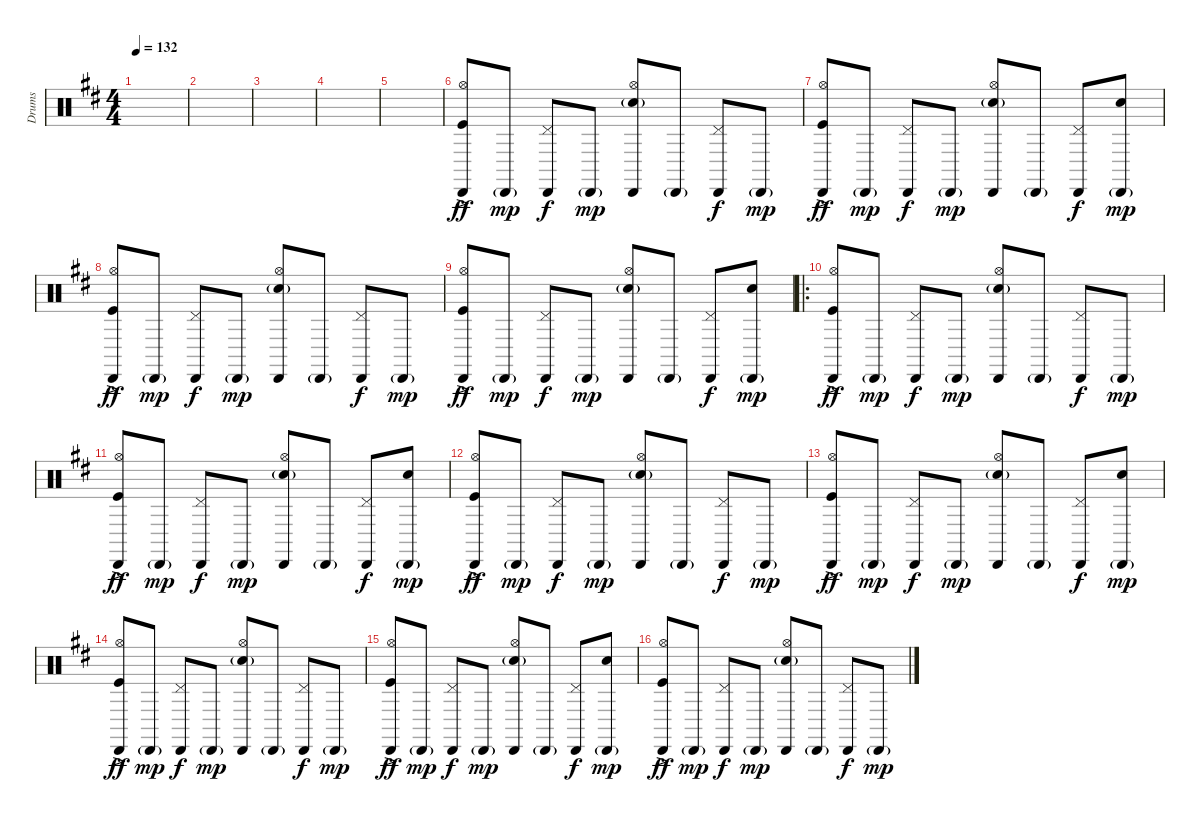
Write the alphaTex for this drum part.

\track ("Drums" "Drums") {instrument percussion}
\staff {score}
\articulation defaults
\ts (4 4)
\tempo 132
\clef neutral
\ks d
|
|
|
|
|
("Cabasa (hit)" "Hi-Hat (open)" "Kick (hit)"{ac}).8{dy ff} "Cabasa (hit)"{g}.8{dy mp} ("Cabasa (hit)" "Pedal Hi-Hat (hit)").8{dy f} "Cabasa (hit)"{g}.8{dy mp} ("Cabasa (hit)" "Hi-Hat (open)" "Snare (hit) 2"{g}).8 "Cabasa (hit)"{g}.8 ("Cabasa (hit)" "Pedal Hi-Hat (hit)").8{dy f} "Cabasa (hit)"{g}.8{dy mp} |
("Cabasa (hit)" "Hi-Hat (open)" "Kick (hit)"{ac}).8{dy ff} "Cabasa (hit)"{g}.8{dy mp} ("Cabasa (hit)" "Pedal Hi-Hat (hit)").8{dy f} "Cabasa (hit)"{g}.8{dy mp} ("Cabasa (hit)" "Hi-Hat (open)" "Snare (hit) 2"{g}).8 "Cabasa (hit)"{g}.8 ("Cabasa (hit)" "Pedal Hi-Hat (hit)").8{dy f} ("Cabasa (hit)"{g} "Snare (hit) 2").8{dy mp} |
("Cabasa (hit)" "Hi-Hat (open)" "Kick (hit)"{ac}).8{dy ff} "Cabasa (hit)"{g}.8{dy mp} ("Cabasa (hit)" "Pedal Hi-Hat (hit)").8{dy f} "Cabasa (hit)"{g}.8{dy mp} ("Cabasa (hit)" "Hi-Hat (open)" "Snare (hit) 2"{g}).8 "Cabasa (hit)"{g}.8 ("Cabasa (hit)" "Pedal Hi-Hat (hit)").8{dy f} "Cabasa (hit)"{g}.8{dy mp} |
("Cabasa (hit)" "Hi-Hat (open)" "Kick (hit)"{ac}).8{dy ff} "Cabasa (hit)"{g}.8{dy mp} ("Cabasa (hit)" "Pedal Hi-Hat (hit)").8{dy f} "Cabasa (hit)"{g}.8{dy mp} ("Cabasa (hit)" "Hi-Hat (open)" "Snare (hit) 2"{g}).8 "Cabasa (hit)"{g}.8 ("Cabasa (hit)" "Pedal Hi-Hat (hit)").8{dy f} ("Cabasa (hit)"{g} "Snare (hit) 2").8{dy mp} |
\ro
("Cabasa (hit)" "Hi-Hat (open)" "Kick (hit)"{ac}).8{dy ff} "Cabasa (hit)"{g}.8{dy mp} ("Cabasa (hit)" "Pedal Hi-Hat (hit)").8{dy f} "Cabasa (hit)"{g}.8{dy mp} ("Cabasa (hit)" "Hi-Hat (open)" "Snare (hit) 2"{g}).8 "Cabasa (hit)"{g}.8 ("Cabasa (hit)" "Pedal Hi-Hat (hit)").8{dy f} "Cabasa (hit)"{g}.8{dy mp} |
("Cabasa (hit)" "Hi-Hat (open)" "Kick (hit)"{ac}).8{dy ff} "Cabasa (hit)"{g}.8{dy mp} ("Cabasa (hit)" "Pedal Hi-Hat (hit)").8{dy f} "Cabasa (hit)"{g}.8{dy mp} ("Cabasa (hit)" "Hi-Hat (open)" "Snare (hit) 2"{g}).8 "Cabasa (hit)"{g}.8 ("Cabasa (hit)" "Pedal Hi-Hat (hit)").8{dy f} ("Cabasa (hit)"{g} "Snare (hit) 2").8{dy mp} |
("Cabasa (hit)" "Hi-Hat (open)" "Kick (hit)"{ac}).8{dy ff} "Cabasa (hit)"{g}.8{dy mp} ("Cabasa (hit)" "Pedal Hi-Hat (hit)").8{dy f} "Cabasa (hit)"{g}.8{dy mp} ("Cabasa (hit)" "Hi-Hat (open)" "Snare (hit) 2"{g}).8 "Cabasa (hit)"{g}.8 ("Cabasa (hit)" "Pedal Hi-Hat (hit)").8{dy f} "Cabasa (hit)"{g}.8{dy mp} |
("Cabasa (hit)" "Hi-Hat (open)" "Kick (hit)"{ac}).8{dy ff} "Cabasa (hit)"{g}.8{dy mp} ("Cabasa (hit)" "Pedal Hi-Hat (hit)").8{dy f} "Cabasa (hit)"{g}.8{dy mp} ("Cabasa (hit)" "Hi-Hat (open)" "Snare (hit) 2"{g}).8 "Cabasa (hit)"{g}.8 ("Cabasa (hit)" "Pedal Hi-Hat (hit)").8{dy f} ("Cabasa (hit)"{g} "Snare (hit) 2").8{dy mp} |
("Cabasa (hit)" "Hi-Hat (open)" "Kick (hit)"{ac}).8{dy ff} "Cabasa (hit)"{g}.8{dy mp} ("Cabasa (hit)" "Pedal Hi-Hat (hit)").8{dy f} "Cabasa (hit)"{g}.8{dy mp} ("Cabasa (hit)" "Hi-Hat (open)" "Snare (hit) 2"{g}).8 "Cabasa (hit)"{g}.8 ("Cabasa (hit)" "Pedal Hi-Hat (hit)").8{dy f} "Cabasa (hit)"{g}.8{dy mp} |
("Cabasa (hit)" "Hi-Hat (open)" "Kick (hit)"{ac}).8{dy ff} "Cabasa (hit)"{g}.8{dy mp} ("Cabasa (hit)" "Pedal Hi-Hat (hit)").8{dy f} "Cabasa (hit)"{g}.8{dy mp} ("Cabasa (hit)" "Hi-Hat (open)" "Snare (hit) 2"{g}).8 "Cabasa (hit)"{g}.8 ("Cabasa (hit)" "Pedal Hi-Hat (hit)").8{dy f} ("Cabasa (hit)"{g} "Snare (hit) 2").8{dy mp} |
("Cabasa (hit)" "Hi-Hat (open)" "Kick (hit)"{ac}).8{dy ff} "Cabasa (hit)"{g}.8{dy mp} ("Cabasa (hit)" "Pedal Hi-Hat (hit)").8{dy f} "Cabasa (hit)"{g}.8{dy mp} ("Cabasa (hit)" "Hi-Hat (open)" "Snare (hit) 2"{g}).8 "Cabasa (hit)"{g}.8 ("Cabasa (hit)" "Pedal Hi-Hat (hit)").8{dy f} "Cabasa (hit)"{g}.8{dy mp}
